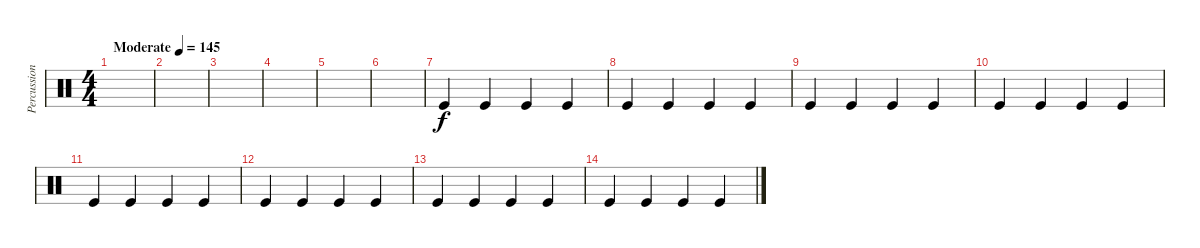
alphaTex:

\track ("Percussion" "Percussion") {instrument percussion}
\staff {score}
\articulation defaults
\ts (4 4)
\tempo (145 "Moderate")
\clef neutral
\ks c
|
|
|
|
|
|
"Kick (hit)".4 "Kick (hit)".4 "Kick (hit)".4 "Kick (hit)".4 |
"Kick (hit)".4 "Kick (hit)".4 "Kick (hit)".4 "Kick (hit)".4 |
"Kick (hit)".4 "Kick (hit)".4 "Kick (hit)".4 "Kick (hit)".4 |
"Kick (hit)".4 "Kick (hit)".4 "Kick (hit)".4 "Kick (hit)".4 |
"Kick (hit)".4 "Kick (hit)".4 "Kick (hit)".4 "Kick (hit)".4 |
"Kick (hit)".4 "Kick (hit)".4 "Kick (hit)".4 "Kick (hit)".4 |
"Kick (hit)".4 "Kick (hit)".4 "Kick (hit)".4 "Kick (hit)".4 |
"Kick (hit)".4 "Kick (hit)".4 "Kick (hit)".4 "Kick (hit)".4
